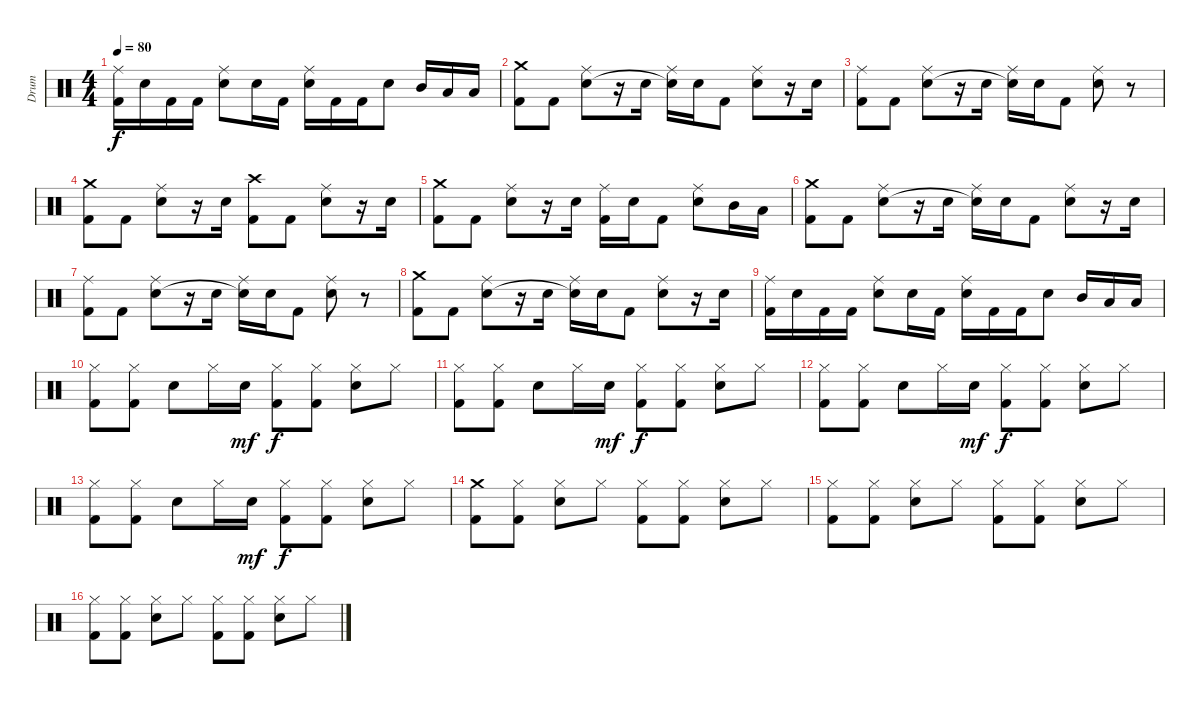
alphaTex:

\track ("Drum" "Drum") {instrument percussion}
\staff {score}
\articulation defaults
\ts (4 4)
\tempo 80
\clef neutral
\ks c
("Ride (middle)" "Kick (hit) 2").16{dy f} "Electric Snare (hit)".16 "Kick (hit) 2".16 "Kick (hit) 2".16 ("Ride (middle)" "Electric Snare (hit)").8 "Electric Snare (hit)".16 "Kick (hit) 2".16 ("Ride (middle)" "Electric Snare (hit)").16 "Kick (hit) 2".16 "Kick (hit) 2".16 "Electric Snare (hit)".8 "Mid Tom (hit)".16 "Low Tom (hit)".16 "Low Floor Tom (hit)".16 |
("Crash medium (hit)" "Kick (hit) 2").8 "Kick (hit) 2".8 ("Ride (middle)" "Electric Snare (hit)").8 r.16 "Electric Snare (hit)".16 ("Ride (middle)" "Electric Snare (hit)"{t}).16 "Electric Snare (hit)".16 "Kick (hit) 2".8 ("Ride (middle)" "Electric Snare (hit)").8 r.16 "Electric Snare (hit)".16 |
("Ride (middle)" "Kick (hit) 2").8 "Kick (hit) 2".8 ("Ride (middle)" "Electric Snare (hit)").8 r.16 "Electric Snare (hit)".16 ("Ride (middle)" "Electric Snare (hit)"{t}).16 "Electric Snare (hit)".16 "Kick (hit) 2".8 ("Ride (middle)" "Electric Snare (hit)").8 r.8 |
("Crash medium (hit)" "Kick (hit) 2").8 "Kick (hit) 2".8 ("Ride (middle)" "Electric Snare (hit)").8 r.16 "Electric Snare (hit)".16 ("Crash high (hit)" "Kick (hit) 2").8 "Kick (hit) 2".8 ("Ride (middle)" "Electric Snare (hit)").8 r.16 "Electric Snare (hit)".16 |
("Crash medium (hit)" "Kick (hit) 2").8 "Kick (hit) 2".8 ("Ride (middle)" "Electric Snare (hit)").8 r.16 "Electric Snare (hit)".16 ("Ride (middle)" "Kick (hit) 2").16 "Electric Snare (hit)".16 "Kick (hit) 2".8 ("Ride (middle)" "Electric Snare (hit)").8 "Mid Tom (hit)".16 "Low Tom (hit)".16 |
("Crash medium (hit)" "Kick (hit) 2").8 "Kick (hit) 2".8 ("Ride (middle)" "Electric Snare (hit)").8 r.16 "Electric Snare (hit)".16 ("Ride (middle)" "Electric Snare (hit)"{t}).16 "Electric Snare (hit)".16 "Kick (hit) 2".8 ("Ride (middle)" "Electric Snare (hit)").8 r.16 "Electric Snare (hit)".16 |
("Ride (middle)" "Kick (hit) 2").8 "Kick (hit) 2".8 ("Ride (middle)" "Electric Snare (hit)").8 r.16 "Electric Snare (hit)".16 ("Ride (middle)" "Electric Snare (hit)"{t}).16 "Electric Snare (hit)".16 "Kick (hit) 2".8 ("Ride (middle)" "Electric Snare (hit)").8 r.8 |
("Crash medium (hit)" "Kick (hit) 2").8 "Kick (hit) 2".8 ("Ride (middle)" "Electric Snare (hit)").8 r.16 "Electric Snare (hit)".16 ("Ride (middle)" "Electric Snare (hit)"{t}).16 "Electric Snare (hit)".16 "Kick (hit) 2".8 ("Ride (middle)" "Electric Snare (hit)").8 r.16 "Electric Snare (hit)".16 |
("Ride (middle)" "Kick (hit) 2").16 "Electric Snare (hit)".16 "Kick (hit) 2".16 "Kick (hit) 2".16 ("Ride (middle)" "Electric Snare (hit)").8 "Electric Snare (hit)".16 "Kick (hit) 2".16 ("Ride (middle)" "Electric Snare (hit)").16 "Kick (hit) 2".16 "Kick (hit) 2".16 "Electric Snare (hit)".8 "Mid Tom (hit)".16 "Low Tom (hit)".16 "Low Floor Tom (hit)".16 |
("Kick (hit) 2" "Hi-Hat (closed)").8 ("Kick (hit) 2" "Hi-Hat (closed)").8 "Electric Snare (hit)".8 "Hi-Hat (closed)".16 "Electric Snare (hit)".16{dy mf} ("Kick (hit) 2" "Hi-Hat (closed)").8{dy f} ("Kick (hit) 2" "Hi-Hat (closed)").8 ("Electric Snare (hit)" "Hi-Hat (closed)").8 "Hi-Hat (closed)".8 |
("Kick (hit) 2" "Hi-Hat (closed)").8 ("Kick (hit) 2" "Hi-Hat (closed)").8 "Electric Snare (hit)".8 "Hi-Hat (closed)".16 "Electric Snare (hit)".16{dy mf} ("Kick (hit) 2" "Hi-Hat (closed)").8{dy f} ("Kick (hit) 2" "Hi-Hat (closed)").8 ("Electric Snare (hit)" "Hi-Hat (closed)").8 "Hi-Hat (closed)".8 |
("Kick (hit) 2" "Hi-Hat (closed)").8 ("Kick (hit) 2" "Hi-Hat (closed)").8 "Electric Snare (hit)".8 "Hi-Hat (closed)".16 "Electric Snare (hit)".16{dy mf} ("Kick (hit) 2" "Hi-Hat (closed)").8{dy f} ("Kick (hit) 2" "Hi-Hat (closed)").8 ("Electric Snare (hit)" "Hi-Hat (closed)").8 "Hi-Hat (closed)".8 |
("Kick (hit) 2" "Hi-Hat (closed)").8 ("Kick (hit) 2" "Hi-Hat (closed)").8 "Electric Snare (hit)".8 "Hi-Hat (closed)".16 "Electric Snare (hit)".16{dy mf} ("Kick (hit) 2" "Hi-Hat (closed)").8{dy f} ("Kick (hit) 2" "Hi-Hat (closed)").8 ("Electric Snare (hit)" "Hi-Hat (closed)").8 "Hi-Hat (closed)".8 |
("Crash medium (hit)" "Kick (hit) 2").8 ("Hi-Hat (closed)" "Kick (hit) 2").8 ("Hi-Hat (closed)" "Electric Snare (hit)").8 "Hi-Hat (closed)".8 ("Hi-Hat (closed)" "Kick (hit) 2").8 ("Hi-Hat (closed)" "Kick (hit) 2").8 ("Hi-Hat (closed)" "Electric Snare (hit)").8 "Hi-Hat (closed)".8 |
("Hi-Hat (closed)" "Kick (hit) 2").8 ("Hi-Hat (closed)" "Kick (hit) 2").8 ("Hi-Hat (closed)" "Electric Snare (hit)").8 "Hi-Hat (closed)".8 ("Hi-Hat (closed)" "Kick (hit) 2").8 ("Hi-Hat (closed)" "Kick (hit) 2").8 ("Hi-Hat (closed)" "Electric Snare (hit)").8 "Hi-Hat (closed)".8 |
("Hi-Hat (closed)" "Kick (hit) 2").8 ("Hi-Hat (closed)" "Kick (hit) 2").8 ("Hi-Hat (closed)" "Electric Snare (hit)").8 "Hi-Hat (closed)".8 ("Hi-Hat (closed)" "Kick (hit) 2").8 ("Hi-Hat (closed)" "Kick (hit) 2").8 ("Hi-Hat (closed)" "Electric Snare (hit)").8 "Hi-Hat (closed)".8
